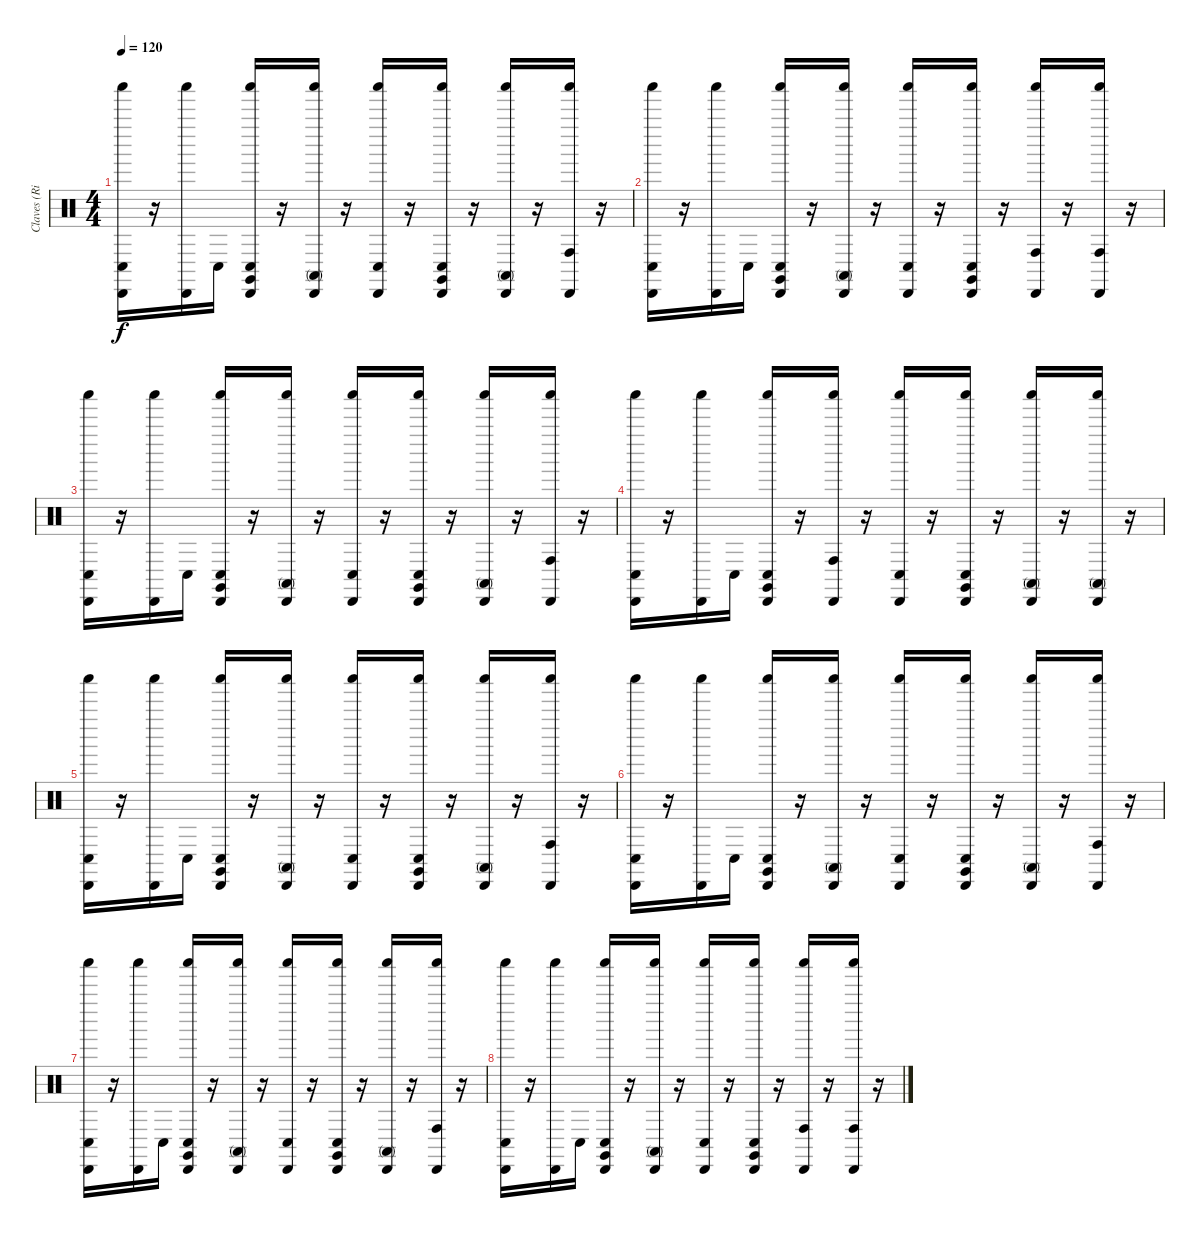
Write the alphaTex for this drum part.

\track ("Claves (Ringo)" "Claves (Ri") {instrument percussion}
\staff {score}
\articulation defaults
\ts (4 4)
\tempo 120
\clef neutral
\ks c
("Cabasa (hit)" "Shaker (hit)" "Conga low (hit)").16{dy f} r.16 ("Shaker (hit)" "Cabasa (hit)").16 "Conga low (hit)".16 ("Conga low (hit)" "Cabasa (hit)" "Claves (hit)" "Shaker (hit)").16 r.16 ("Cabasa (hit)" "Conga high (mute)" "Shaker (hit)").16 r.16 ("Shaker (hit)" "Conga low (hit)" "Cabasa (hit)").16 r.16 ("Shaker (hit)" "Claves (hit)" "Conga low (hit)" "Cabasa (hit)").16 r.16 ("Conga high (mute)" "Cabasa (hit)" "Shaker (hit)").16 r.16 ("Shaker (hit)" "Cabasa (hit)" "Conga high (hit)").16 r.16 |
("Shaker (hit)" "Conga low (hit)" "Cabasa (hit)").16 r.16 ("Cabasa (hit)" "Shaker (hit)").16 "Conga low (hit)".16 ("Cabasa (hit)" "Shaker (hit)" "Conga low (hit)" "Claves (hit)").16 r.16 ("Conga high (mute)" "Shaker (hit)" "Cabasa (hit)").16 r.16 ("Conga low (hit)" "Cabasa (hit)" "Shaker (hit)").16 r.16 ("Cabasa (hit)" "Shaker (hit)" "Conga low (hit)" "Claves (hit)").16 r.16 ("Conga high (hit)" "Shaker (hit)" "Cabasa (hit)").16 r.16 ("Shaker (hit)" "Conga high (hit)" "Cabasa (hit)").16 r.16 |
("Conga low (hit)" "Shaker (hit)" "Cabasa (hit)").16 r.16 ("Cabasa (hit)" "Shaker (hit)").16 "Conga low (hit)".16 ("Conga low (hit)" "Cabasa (hit)" "Claves (hit)" "Shaker (hit)").16 r.16 ("Conga high (mute)" "Shaker (hit)" "Cabasa (hit)").16 r.16 ("Shaker (hit)" "Conga low (hit)" "Cabasa (hit)").16 r.16 ("Cabasa (hit)" "Claves (hit)" "Conga low (hit)" "Shaker (hit)").16 r.16 ("Conga high (mute)" "Shaker (hit)" "Cabasa (hit)").16 r.16 ("Shaker (hit)" "Cabasa (hit)" "Conga high (hit)").16 r.16 |
("Conga low (hit)" "Cabasa (hit)" "Shaker (hit)").16 r.16 ("Cabasa (hit)" "Shaker (hit)").16 "Conga low (hit)".16 ("Claves (hit)" "Shaker (hit)" "Cabasa (hit)" "Conga low (hit)").16 r.16 ("Conga high (hit)" "Cabasa (hit)" "Shaker (hit)").16 r.16 ("Cabasa (hit)" "Conga low (hit)" "Shaker (hit)").16 r.16 ("Shaker (hit)" "Conga low (hit)" "Claves (hit)" "Cabasa (hit)").16 r.16 ("Shaker (hit)" "Cabasa (hit)" "Conga high (mute)").16 r.16 ("Conga high (mute)" "Cabasa (hit)" "Shaker (hit)").16 r.16 |
("Conga low (hit)" "Shaker (hit)" "Cabasa (hit)").16 r.16 ("Shaker (hit)" "Cabasa (hit)").16 "Conga low (hit)".16 ("Cabasa (hit)" "Claves (hit)" "Conga low (hit)" "Shaker (hit)").16 r.16 ("Shaker (hit)" "Conga high (mute)" "Cabasa (hit)").16 r.16 ("Conga low (hit)" "Shaker (hit)" "Cabasa (hit)").16 r.16 ("Claves (hit)" "Cabasa (hit)" "Conga low (hit)" "Shaker (hit)").16 r.16 ("Conga high (mute)" "Cabasa (hit)" "Shaker (hit)").16 r.16 ("Cabasa (hit)" "Conga high (hit)" "Shaker (hit)").16 r.16 |
("Shaker (hit)" "Conga low (hit)" "Cabasa (hit)").16 r.16 ("Cabasa (hit)" "Shaker (hit)").16 "Conga low (hit)".16 ("Cabasa (hit)" "Conga low (hit)" "Shaker (hit)" "Claves (hit)").16 r.16 ("Shaker (hit)" "Conga high (mute)" "Cabasa (hit)").16 r.16 ("Shaker (hit)" "Conga low (hit)" "Cabasa (hit)").16 r.16 ("Conga low (hit)" "Cabasa (hit)" "Claves (hit)" "Shaker (hit)").16 r.16 ("Conga high (mute)" "Cabasa (hit)" "Shaker (hit)").16 r.16 ("Cabasa (hit)" "Shaker (hit)" "Conga high (hit)").16 r.16 |
("Shaker (hit)" "Cabasa (hit)" "Conga low (hit)").16 r.16 ("Shaker (hit)" "Cabasa (hit)").16 "Conga low (hit)".16 ("Cabasa (hit)" "Conga low (hit)" "Shaker (hit)" "Claves (hit)").16 r.16 ("Shaker (hit)" "Conga high (mute)" "Cabasa (hit)").16 r.16 ("Cabasa (hit)" "Conga low (hit)" "Shaker (hit)").16 r.16 ("Conga low (hit)" "Claves (hit)" "Shaker (hit)" "Cabasa (hit)").16 r.16 ("Shaker (hit)" "Cabasa (hit)" "Conga high (mute)").16 r.16 ("Shaker (hit)" "Cabasa (hit)" "Conga high (hit)").16 r.16 |
("Conga low (hit)" "Cabasa (hit)" "Shaker (hit)").16 r.16 ("Shaker (hit)" "Cabasa (hit)").16 "Conga low (hit)".16 ("Shaker (hit)" "Conga low (hit)" "Cabasa (hit)" "Claves (hit)").16 r.16 ("Cabasa (hit)" "Conga high (mute)" "Shaker (hit)").16 r.16 ("Shaker (hit)" "Cabasa (hit)" "Conga low (hit)").16 r.16 ("Claves (hit)" "Cabasa (hit)" "Conga low (hit)" "Shaker (hit)").16 r.16 ("Cabasa (hit)" "Conga high (hit)" "Shaker (hit)").16 r.16 ("Cabasa (hit)" "Shaker (hit)" "Conga high (hit)").16 r.16
